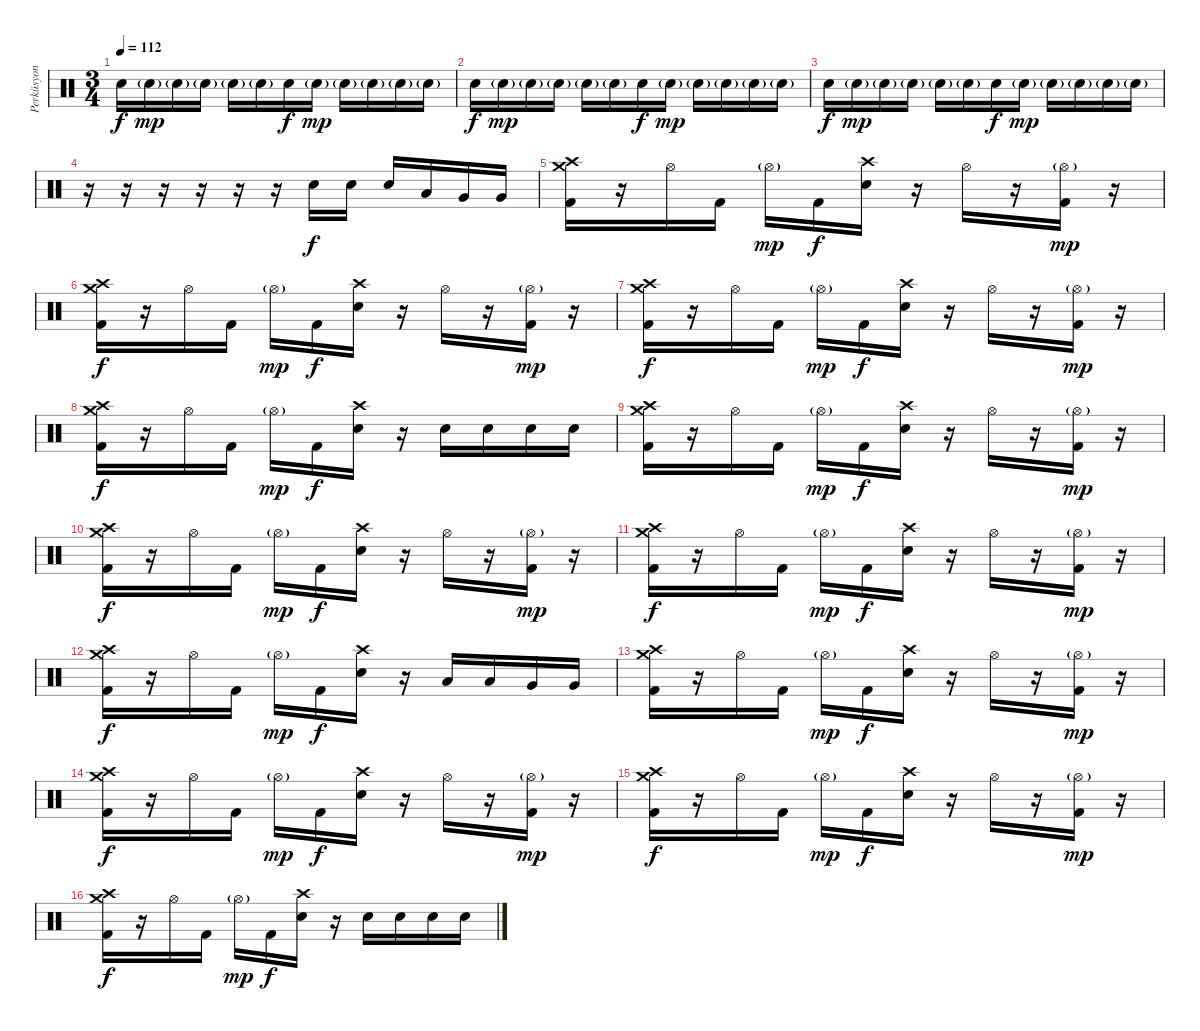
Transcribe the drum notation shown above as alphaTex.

\track ("Perküsyon" "Perküsyon") {instrument percussion}
\staff {score}
\articulation defaults
\ts (3 4)
\tempo 112
\clef neutral
\ks c "Electric Snare (hit)".16{dy f} "Electric Snare (hit)"{g}.16{dy mp} "Electric Snare (hit)"{g}.16 "Electric Snare (hit)"{g}.16 "Electric Snare (hit)"{g}.16 "Electric Snare (hit)"{g}.16 "Electric Snare (hit)".16{dy f} "Electric Snare (hit)"{g}.16{dy mp} "Electric Snare (hit)"{g}.16 "Electric Snare (hit)"{g}.16 "Electric Snare (hit)"{g}.16 "Electric Snare (hit)"{g}.16
|
"Electric Snare (hit)".16{dy f} "Electric Snare (hit)"{g}.16{dy mp} "Electric Snare (hit)"{g}.16 "Electric Snare (hit)"{g}.16 "Electric Snare (hit)"{g}.16 "Electric Snare (hit)"{g}.16 "Electric Snare (hit)".16{dy f} "Electric Snare (hit)"{g}.16{dy mp} "Electric Snare (hit)"{g}.16 "Electric Snare (hit)"{g}.16 "Electric Snare (hit)"{g}.16 "Electric Snare (hit)"{g}.16 |
"Electric Snare (hit)".16{dy f} "Electric Snare (hit)"{g}.16{dy mp} "Electric Snare (hit)"{g}.16 "Electric Snare (hit)"{g}.16 "Electric Snare (hit)"{g}.16 "Electric Snare (hit)"{g}.16 "Electric Snare (hit)".16{dy f} "Electric Snare (hit)"{g}.16{dy mp} "Electric Snare (hit)"{g}.16 "Electric Snare (hit)"{g}.16 "Electric Snare (hit)"{g}.16 "Electric Snare (hit)"{g}.16 |
r.16 r.16 r.16 r.16 r.16 r.16 "Electric Snare (hit)".16{dy f} "Electric Snare (hit)".16 "Electric Snare (hit)".16 "Low Tom (hit)".16 "Very Low Tom (hit)".16 "Very Low Tom (hit)".16 |
("Crash high (hit)" "Crash medium (hit)" "Kick (hit) 2").16 r.16 "Hi-Hat (open)".16 "Kick (hit) 2".16 "Hi-Hat (open)"{g}.16{dy mp} "Kick (hit) 2".16{dy f} ("Crash high (hit)" "Electric Snare (hit)").16 r.16 "Hi-Hat (open)".16 r.16 ("Hi-Hat (open)"{g} "Kick (hit) 2").16{dy mp} r.16 |
("Crash high (hit)" "Crash medium (hit)" "Kick (hit) 2").16{dy f} r.16 "Hi-Hat (open)".16 "Kick (hit) 2".16 "Hi-Hat (open)"{g}.16{dy mp} "Kick (hit) 2".16{dy f} ("Crash high (hit)" "Electric Snare (hit)").16 r.16 "Hi-Hat (open)".16 r.16 ("Hi-Hat (open)"{g} "Kick (hit) 2").16{dy mp} r.16 |
("Crash high (hit)" "Crash medium (hit)" "Kick (hit) 2").16{dy f} r.16 "Hi-Hat (open)".16 "Kick (hit) 2".16 "Hi-Hat (open)"{g}.16{dy mp} "Kick (hit) 2".16{dy f} ("Crash high (hit)" "Electric Snare (hit)").16 r.16 "Hi-Hat (open)".16 r.16 ("Hi-Hat (open)"{g} "Kick (hit) 2").16{dy mp} r.16 |
("Crash high (hit)" "Crash medium (hit)" "Kick (hit) 2").16{dy f} r.16 "Hi-Hat (open)".16 "Kick (hit) 2".16 "Hi-Hat (open)"{g}.16{dy mp} "Kick (hit) 2".16{dy f} ("Crash high (hit)" "Electric Snare (hit)").16 r.16 "Electric Snare (hit)".16 "Electric Snare (hit)".16 "Electric Snare (hit)".16 "Electric Snare (hit)".16 |
("Crash high (hit)" "Crash medium (hit)" "Kick (hit) 2").16 r.16 "Hi-Hat (open)".16 "Kick (hit) 2".16 "Hi-Hat (open)"{g}.16{dy mp} "Kick (hit) 2".16{dy f} ("Crash high (hit)" "Electric Snare (hit)").16 r.16 "Hi-Hat (open)".16 r.16 ("Hi-Hat (open)"{g} "Kick (hit) 2").16{dy mp} r.16 |
("Crash high (hit)" "Crash medium (hit)" "Kick (hit) 2").16{dy f} r.16 "Hi-Hat (open)".16 "Kick (hit) 2".16 "Hi-Hat (open)"{g}.16{dy mp} "Kick (hit) 2".16{dy f} ("Crash high (hit)" "Electric Snare (hit)").16 r.16 "Hi-Hat (open)".16 r.16 ("Hi-Hat (open)"{g} "Kick (hit) 2").16{dy mp} r.16 |
("Crash high (hit)" "Crash medium (hit)" "Kick (hit) 2").16{dy f} r.16 "Hi-Hat (open)".16 "Kick (hit) 2".16 "Hi-Hat (open)"{g}.16{dy mp} "Kick (hit) 2".16{dy f} ("Crash high (hit)" "Electric Snare (hit)").16 r.16 "Hi-Hat (open)".16 r.16 ("Hi-Hat (open)"{g} "Kick (hit) 2").16{dy mp} r.16 |
("Crash high (hit)" "Crash medium (hit)" "Kick (hit) 2").16{dy f} r.16 "Hi-Hat (open)".16 "Kick (hit) 2".16 "Hi-Hat (open)"{g}.16{dy mp} "Kick (hit) 2".16{dy f} ("Crash high (hit)" "Electric Snare (hit)").16 r.16 "Low Tom (hit)".16 "Low Tom (hit)".16 "Very Low Tom (hit)".16 "Very Low Tom (hit)".16 |
("Crash high (hit)" "Crash medium (hit)" "Kick (hit) 2").16 r.16 "Hi-Hat (open)".16 "Kick (hit) 2".16 "Hi-Hat (open)"{g}.16{dy mp} "Kick (hit) 2".16{dy f} ("Crash high (hit)" "Electric Snare (hit)").16 r.16 "Hi-Hat (open)".16 r.16 ("Hi-Hat (open)"{g} "Kick (hit) 2").16{dy mp} r.16 |
("Crash high (hit)" "Crash medium (hit)" "Kick (hit) 2").16{dy f} r.16 "Hi-Hat (open)".16 "Kick (hit) 2".16 "Hi-Hat (open)"{g}.16{dy mp} "Kick (hit) 2".16{dy f} ("Crash high (hit)" "Electric Snare (hit)").16 r.16 "Hi-Hat (open)".16 r.16 ("Hi-Hat (open)"{g} "Kick (hit) 2").16{dy mp} r.16 |
("Crash high (hit)" "Crash medium (hit)" "Kick (hit) 2").16{dy f} r.16 "Hi-Hat (open)".16 "Kick (hit) 2".16 "Hi-Hat (open)"{g}.16{dy mp} "Kick (hit) 2".16{dy f} ("Crash high (hit)" "Electric Snare (hit)").16 r.16 "Hi-Hat (open)".16 r.16 ("Hi-Hat (open)"{g} "Kick (hit) 2").16{dy mp} r.16 |
("Crash high (hit)" "Crash medium (hit)" "Kick (hit) 2").16{dy f} r.16 "Hi-Hat (open)".16 "Kick (hit) 2".16 "Hi-Hat (open)"{g}.16{dy mp} "Kick (hit) 2".16{dy f} ("Crash high (hit)" "Electric Snare (hit)").16 r.16 "Electric Snare (hit)".16 "Electric Snare (hit)".16 "Electric Snare (hit)".16 "Electric Snare (hit)".16
